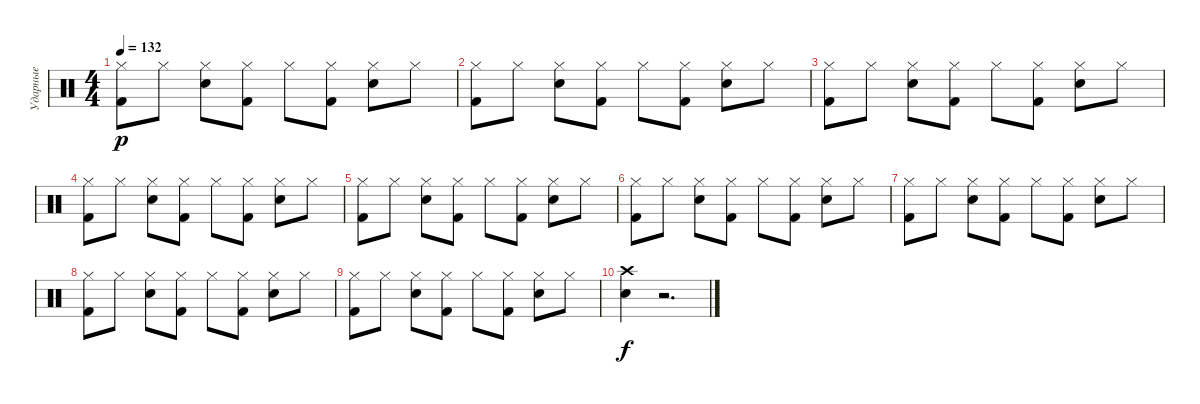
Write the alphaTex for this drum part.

\track ("Ударные" "Ударные") {instrument percussion}
\staff {score}
\articulation defaults
\ts (4 4)
\tempo 132
\clef neutral
\ks c
("Hi-Hat (closed)" "Kick (hit) 2").8{dy p} "Hi-Hat (closed)".8 ("Hi-Hat (closed)" "Snare (hit) 2").8 ("Hi-Hat (closed)" "Kick (hit) 2").8 "Hi-Hat (closed)".8 ("Hi-Hat (closed)" "Kick (hit) 2").8 ("Hi-Hat (closed)" "Snare (hit) 2").8 "Hi-Hat (closed)".8 |
("Hi-Hat (closed)" "Kick (hit) 2").8 "Hi-Hat (closed)".8 ("Hi-Hat (closed)" "Snare (hit) 2").8 ("Hi-Hat (closed)" "Kick (hit) 2").8 "Hi-Hat (closed)".8 ("Hi-Hat (closed)" "Kick (hit) 2").8 ("Hi-Hat (closed)" "Snare (hit) 2").8 "Hi-Hat (closed)".8 |
("Hi-Hat (closed)" "Kick (hit) 2").8 "Hi-Hat (closed)".8 ("Hi-Hat (closed)" "Snare (hit) 2").8 ("Hi-Hat (closed)" "Kick (hit) 2").8 "Hi-Hat (closed)".8 ("Hi-Hat (closed)" "Kick (hit) 2").8 ("Hi-Hat (closed)" "Snare (hit) 2").8 "Hi-Hat (closed)".8 |
("Hi-Hat (closed)" "Kick (hit) 2").8 "Hi-Hat (closed)".8 ("Hi-Hat (closed)" "Snare (hit) 2").8 ("Hi-Hat (closed)" "Kick (hit) 2").8 "Hi-Hat (closed)".8 ("Hi-Hat (closed)" "Kick (hit) 2").8 ("Hi-Hat (closed)" "Snare (hit) 2").8 "Hi-Hat (closed)".8 |
("Hi-Hat (closed)" "Kick (hit) 2").8 "Hi-Hat (closed)".8 ("Hi-Hat (closed)" "Snare (hit) 2").8 ("Hi-Hat (closed)" "Kick (hit) 2").8 "Hi-Hat (closed)".8 ("Hi-Hat (closed)" "Kick (hit) 2").8 ("Hi-Hat (closed)" "Snare (hit) 2").8 "Hi-Hat (closed)".8 |
("Hi-Hat (closed)" "Kick (hit) 2").8 "Hi-Hat (closed)".8 ("Hi-Hat (closed)" "Snare (hit) 2").8 ("Hi-Hat (closed)" "Kick (hit) 2").8 "Hi-Hat (closed)".8 ("Hi-Hat (closed)" "Kick (hit) 2").8 ("Hi-Hat (closed)" "Snare (hit) 2").8 "Hi-Hat (closed)".8 |
("Hi-Hat (closed)" "Kick (hit) 2").8 "Hi-Hat (closed)".8 ("Hi-Hat (closed)" "Snare (hit) 2").8 ("Hi-Hat (closed)" "Kick (hit) 2").8 "Hi-Hat (closed)".8 ("Hi-Hat (closed)" "Kick (hit) 2").8 ("Hi-Hat (closed)" "Snare (hit) 2").8 "Hi-Hat (closed)".8 |
("Hi-Hat (closed)" "Kick (hit) 2").8 "Hi-Hat (closed)".8 ("Hi-Hat (closed)" "Snare (hit) 2").8 ("Hi-Hat (closed)" "Kick (hit) 2").8 "Hi-Hat (closed)".8 ("Hi-Hat (closed)" "Kick (hit) 2").8 ("Hi-Hat (closed)" "Snare (hit) 2").8 "Hi-Hat (closed)".8 |
("Hi-Hat (closed)" "Kick (hit) 2").8 "Hi-Hat (closed)".8 ("Hi-Hat (closed)" "Snare (hit) 2").8 ("Hi-Hat (closed)" "Kick (hit) 2").8 "Hi-Hat (closed)".8 ("Hi-Hat (closed)" "Kick (hit) 2").8 ("Hi-Hat (closed)" "Snare (hit) 2").8 "Hi-Hat (closed)".8 |
("Crash high (hit)" "Snare (hit) 2").4{dy f} r.2{d}
